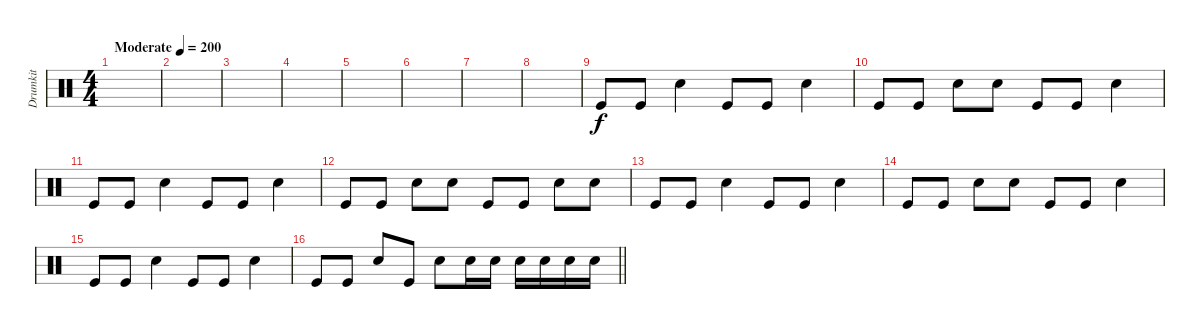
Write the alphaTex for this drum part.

\track ("Drumkit" "Drumkit") {instrument percussion}
\staff {score}
\articulation defaults
\ts (4 4)
\tempo (200 "Moderate")
\clef neutral
\ks c
|
|
|
|
|
|
|
|
"Kick (hit)".8 "Kick (hit)".8 "Snare (hit) 2".4 "Kick (hit)".8 "Kick (hit)".8 "Snare (hit) 2".4 |
"Kick (hit)".8 "Kick (hit)".8 "Snare (hit) 2".8 "Snare (hit) 2".8 "Kick (hit)".8 "Kick (hit)".8 "Snare (hit) 2".4 |
"Kick (hit)".8 "Kick (hit)".8 "Snare (hit) 2".4 "Kick (hit)".8 "Kick (hit)".8 "Snare (hit) 2".4 |
"Kick (hit)".8 "Kick (hit)".8 "Snare (hit) 2".8 "Snare (hit) 2".8 "Kick (hit)".8 "Kick (hit)".8 "Snare (hit) 2".8 "Snare (hit) 2".8 |
"Kick (hit)".8 "Kick (hit)".8 "Snare (hit) 2".4 "Kick (hit)".8 "Kick (hit)".8 "Snare (hit) 2".4 |
"Kick (hit)".8 "Kick (hit)".8 "Snare (hit) 2".8 "Snare (hit) 2".8 "Kick (hit)".8 "Kick (hit)".8 "Snare (hit) 2".4 |
"Kick (hit)".8 "Kick (hit)".8 "Snare (hit) 2".4 "Kick (hit)".8 "Kick (hit)".8 "Snare (hit) 2".4 |
\barLineRight lightlight "Kick (hit)".8 "Kick (hit)".8 "Snare (hit) 2".8 "Kick (hit)".8 "Snare (hit) 2".8 "Snare (hit) 2".16 "Snare (hit) 2".16 "Snare (hit) 2".16 "Snare (hit) 2".16 "Snare (hit) 2".16 "Snare (hit) 2".16
